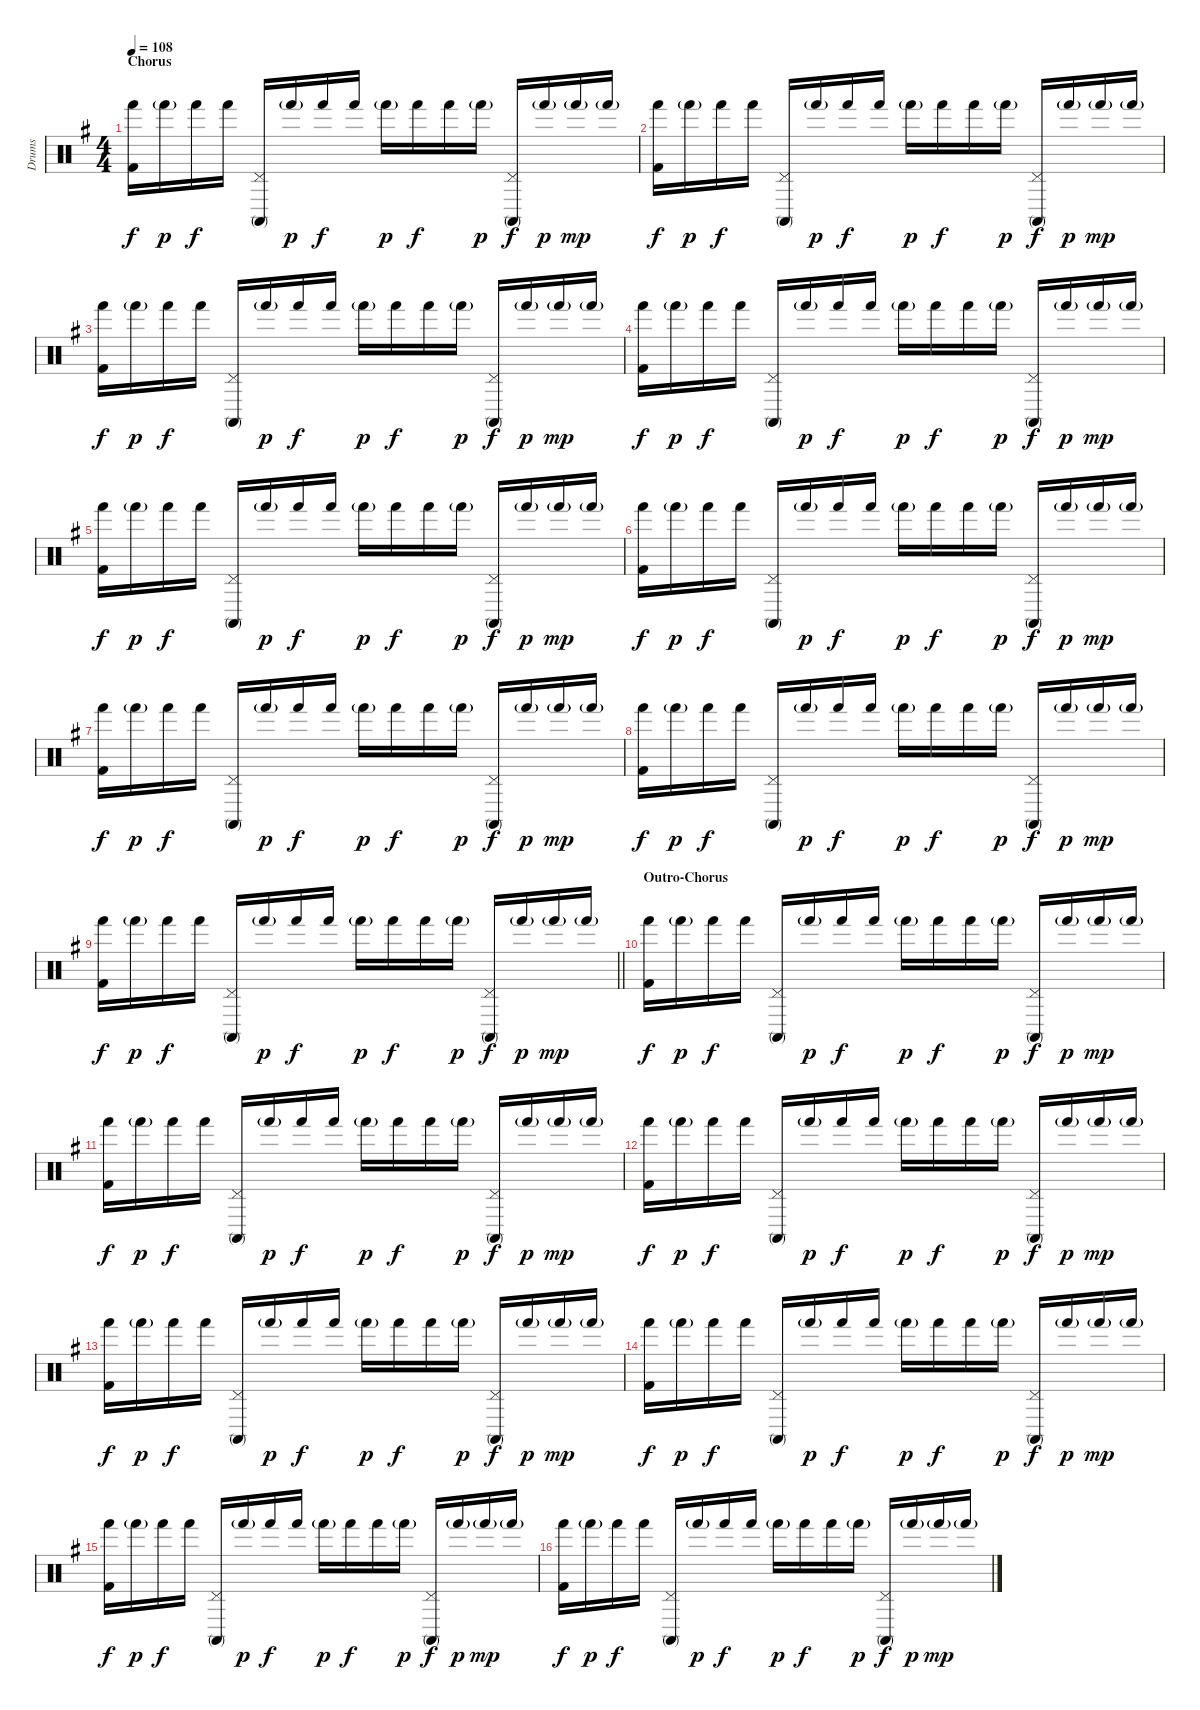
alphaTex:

\track ("Drums" "Drums") {instrument percussion}
\staff {score}
\articulation defaults
\ts (4 4)
\section ("" "Chorus")
\tempo 108
\clef neutral
\ks eminor
("Hand (hit)" "Kick (hit) 2").16{dy f} "Hand (hit)"{g}.16{dy p} "Hand (hit)".16{dy f} "Hand (hit)".16 ("Pedal Hi-Hat (hit)" "Conga high (mute)").16 "Hand (hit)"{g}.16{dy p} "Hand (hit)".16{dy f} "Hand (hit)".16 "Hand (hit)"{g}.16{dy p} "Hand (hit)".16{dy f} "Hand (hit)".16 "Hand (hit)"{g}.16{dy p} ("Pedal Hi-Hat (hit)" "Conga high (mute)").16{dy f} "Hand (hit)"{g}.16{dy p} "Hand (hit)"{g}.16{dy mp} "Hand (hit)"{g}.16 |
("Hand (hit)" "Kick (hit) 2").16{dy f} "Hand (hit)"{g}.16{dy p} "Hand (hit)".16{dy f} "Hand (hit)".16 ("Pedal Hi-Hat (hit)" "Conga high (mute)").16 "Hand (hit)"{g}.16{dy p} "Hand (hit)".16{dy f} "Hand (hit)".16 "Hand (hit)"{g}.16{dy p} "Hand (hit)".16{dy f} "Hand (hit)".16 "Hand (hit)"{g}.16{dy p} ("Pedal Hi-Hat (hit)" "Conga high (mute)").16{dy f} "Hand (hit)"{g}.16{dy p} "Hand (hit)"{g}.16{dy mp} "Hand (hit)"{g}.16 |
("Hand (hit)" "Kick (hit) 2").16{dy f} "Hand (hit)"{g}.16{dy p} "Hand (hit)".16{dy f} "Hand (hit)".16 ("Pedal Hi-Hat (hit)" "Conga high (mute)").16 "Hand (hit)"{g}.16{dy p} "Hand (hit)".16{dy f} "Hand (hit)".16 "Hand (hit)"{g}.16{dy p} "Hand (hit)".16{dy f} "Hand (hit)".16 "Hand (hit)"{g}.16{dy p} ("Pedal Hi-Hat (hit)" "Conga high (mute)").16{dy f} "Hand (hit)"{g}.16{dy p} "Hand (hit)"{g}.16{dy mp} "Hand (hit)"{g}.16 |
("Hand (hit)" "Kick (hit) 2").16{dy f} "Hand (hit)"{g}.16{dy p} "Hand (hit)".16{dy f} "Hand (hit)".16 ("Pedal Hi-Hat (hit)" "Conga high (mute)").16 "Hand (hit)"{g}.16{dy p} "Hand (hit)".16{dy f} "Hand (hit)".16 "Hand (hit)"{g}.16{dy p} "Hand (hit)".16{dy f} "Hand (hit)".16 "Hand (hit)"{g}.16{dy p} ("Pedal Hi-Hat (hit)" "Conga high (mute)").16{dy f} "Hand (hit)"{g}.16{dy p} "Hand (hit)"{g}.16{dy mp} "Hand (hit)"{g}.16 |
("Hand (hit)" "Kick (hit) 2").16{dy f} "Hand (hit)"{g}.16{dy p} "Hand (hit)".16{dy f} "Hand (hit)".16 ("Pedal Hi-Hat (hit)" "Conga high (mute)").16 "Hand (hit)"{g}.16{dy p} "Hand (hit)".16{dy f} "Hand (hit)".16 "Hand (hit)"{g}.16{dy p} "Hand (hit)".16{dy f} "Hand (hit)".16 "Hand (hit)"{g}.16{dy p} ("Pedal Hi-Hat (hit)" "Conga high (mute)").16{dy f} "Hand (hit)"{g}.16{dy p} "Hand (hit)"{g}.16{dy mp} "Hand (hit)"{g}.16 |
("Hand (hit)" "Kick (hit) 2").16{dy f} "Hand (hit)"{g}.16{dy p} "Hand (hit)".16{dy f} "Hand (hit)".16 ("Pedal Hi-Hat (hit)" "Conga high (mute)").16 "Hand (hit)"{g}.16{dy p} "Hand (hit)".16{dy f} "Hand (hit)".16 "Hand (hit)"{g}.16{dy p} "Hand (hit)".16{dy f} "Hand (hit)".16 "Hand (hit)"{g}.16{dy p} ("Pedal Hi-Hat (hit)" "Conga high (mute)").16{dy f} "Hand (hit)"{g}.16{dy p} "Hand (hit)"{g}.16{dy mp} "Hand (hit)"{g}.16 |
("Hand (hit)" "Kick (hit) 2").16{dy f} "Hand (hit)"{g}.16{dy p} "Hand (hit)".16{dy f} "Hand (hit)".16 ("Pedal Hi-Hat (hit)" "Conga high (mute)").16 "Hand (hit)"{g}.16{dy p} "Hand (hit)".16{dy f} "Hand (hit)".16 "Hand (hit)"{g}.16{dy p} "Hand (hit)".16{dy f} "Hand (hit)".16 "Hand (hit)"{g}.16{dy p} ("Pedal Hi-Hat (hit)" "Conga high (mute)").16{dy f} "Hand (hit)"{g}.16{dy p} "Hand (hit)"{g}.16{dy mp} "Hand (hit)"{g}.16 |
("Hand (hit)" "Kick (hit) 2").16{dy f} "Hand (hit)"{g}.16{dy p} "Hand (hit)".16{dy f} "Hand (hit)".16 ("Pedal Hi-Hat (hit)" "Conga high (mute)").16 "Hand (hit)"{g}.16{dy p} "Hand (hit)".16{dy f} "Hand (hit)".16 "Hand (hit)"{g}.16{dy p} "Hand (hit)".16{dy f} "Hand (hit)".16 "Hand (hit)"{g}.16{dy p} ("Pedal Hi-Hat (hit)" "Conga high (mute)").16{dy f} "Hand (hit)"{g}.16{dy p} "Hand (hit)"{g}.16{dy mp} "Hand (hit)"{g}.16 |
\barLineRight lightlight
("Hand (hit)" "Kick (hit) 2").16{dy f} "Hand (hit)"{g}.16{dy p} "Hand (hit)".16{dy f} "Hand (hit)".16 ("Pedal Hi-Hat (hit)" "Conga high (mute)").16 "Hand (hit)"{g}.16{dy p} "Hand (hit)".16{dy f} "Hand (hit)".16 "Hand (hit)"{g}.16{dy p} "Hand (hit)".16{dy f} "Hand (hit)".16 "Hand (hit)"{g}.16{dy p} ("Pedal Hi-Hat (hit)" "Conga high (mute)").16{dy f} "Hand (hit)"{g}.16{dy p} "Hand (hit)"{g}.16{dy mp} "Hand (hit)"{g}.16 |
\section ("" "Outro-Chorus")
("Hand (hit)" "Kick (hit) 2").16{dy f} "Hand (hit)"{g}.16{dy p} "Hand (hit)".16{dy f} "Hand (hit)".16 ("Pedal Hi-Hat (hit)" "Conga high (mute)").16 "Hand (hit)"{g}.16{dy p} "Hand (hit)".16{dy f} "Hand (hit)".16 "Hand (hit)"{g}.16{dy p} "Hand (hit)".16{dy f} "Hand (hit)".16 "Hand (hit)"{g}.16{dy p} ("Pedal Hi-Hat (hit)" "Conga high (mute)").16{dy f} "Hand (hit)"{g}.16{dy p} "Hand (hit)"{g}.16{dy mp} "Hand (hit)"{g}.16 |
("Hand (hit)" "Kick (hit) 2").16{dy f} "Hand (hit)"{g}.16{dy p} "Hand (hit)".16{dy f} "Hand (hit)".16 ("Pedal Hi-Hat (hit)" "Conga high (mute)").16 "Hand (hit)"{g}.16{dy p} "Hand (hit)".16{dy f} "Hand (hit)".16 "Hand (hit)"{g}.16{dy p} "Hand (hit)".16{dy f} "Hand (hit)".16 "Hand (hit)"{g}.16{dy p} ("Pedal Hi-Hat (hit)" "Conga high (mute)").16{dy f} "Hand (hit)"{g}.16{dy p} "Hand (hit)"{g}.16{dy mp} "Hand (hit)"{g}.16 |
("Hand (hit)" "Kick (hit) 2").16{dy f} "Hand (hit)"{g}.16{dy p} "Hand (hit)".16{dy f} "Hand (hit)".16 ("Pedal Hi-Hat (hit)" "Conga high (mute)").16 "Hand (hit)"{g}.16{dy p} "Hand (hit)".16{dy f} "Hand (hit)".16 "Hand (hit)"{g}.16{dy p} "Hand (hit)".16{dy f} "Hand (hit)".16 "Hand (hit)"{g}.16{dy p} ("Pedal Hi-Hat (hit)" "Conga high (mute)").16{dy f} "Hand (hit)"{g}.16{dy p} "Hand (hit)"{g}.16{dy mp} "Hand (hit)"{g}.16 |
("Hand (hit)" "Kick (hit) 2").16{dy f} "Hand (hit)"{g}.16{dy p} "Hand (hit)".16{dy f} "Hand (hit)".16 ("Pedal Hi-Hat (hit)" "Conga high (mute)").16 "Hand (hit)"{g}.16{dy p} "Hand (hit)".16{dy f} "Hand (hit)".16 "Hand (hit)"{g}.16{dy p} "Hand (hit)".16{dy f} "Hand (hit)".16 "Hand (hit)"{g}.16{dy p} ("Pedal Hi-Hat (hit)" "Conga high (mute)").16{dy f} "Hand (hit)"{g}.16{dy p} "Hand (hit)"{g}.16{dy mp} "Hand (hit)"{g}.16 |
("Hand (hit)" "Kick (hit) 2").16{dy f} "Hand (hit)"{g}.16{dy p} "Hand (hit)".16{dy f} "Hand (hit)".16 ("Pedal Hi-Hat (hit)" "Conga high (mute)").16 "Hand (hit)"{g}.16{dy p} "Hand (hit)".16{dy f} "Hand (hit)".16 "Hand (hit)"{g}.16{dy p} "Hand (hit)".16{dy f} "Hand (hit)".16 "Hand (hit)"{g}.16{dy p} ("Pedal Hi-Hat (hit)" "Conga high (mute)").16{dy f} "Hand (hit)"{g}.16{dy p} "Hand (hit)"{g}.16{dy mp} "Hand (hit)"{g}.16 |
("Hand (hit)" "Kick (hit) 2").16{dy f} "Hand (hit)"{g}.16{dy p} "Hand (hit)".16{dy f} "Hand (hit)".16 ("Pedal Hi-Hat (hit)" "Conga high (mute)").16 "Hand (hit)"{g}.16{dy p} "Hand (hit)".16{dy f} "Hand (hit)".16 "Hand (hit)"{g}.16{dy p} "Hand (hit)".16{dy f} "Hand (hit)".16 "Hand (hit)"{g}.16{dy p} ("Pedal Hi-Hat (hit)" "Conga high (mute)").16{dy f} "Hand (hit)"{g}.16{dy p} "Hand (hit)"{g}.16{dy mp} "Hand (hit)"{g}.16 |
("Hand (hit)" "Kick (hit) 2").16{dy f} "Hand (hit)"{g}.16{dy p} "Hand (hit)".16{dy f} "Hand (hit)".16 ("Pedal Hi-Hat (hit)" "Conga high (mute)").16 "Hand (hit)"{g}.16{dy p} "Hand (hit)".16{dy f} "Hand (hit)".16 "Hand (hit)"{g}.16{dy p} "Hand (hit)".16{dy f} "Hand (hit)".16 "Hand (hit)"{g}.16{dy p} ("Pedal Hi-Hat (hit)" "Conga high (mute)").16{dy f} "Hand (hit)"{g}.16{dy p} "Hand (hit)"{g}.16{dy mp} "Hand (hit)"{g}.16
